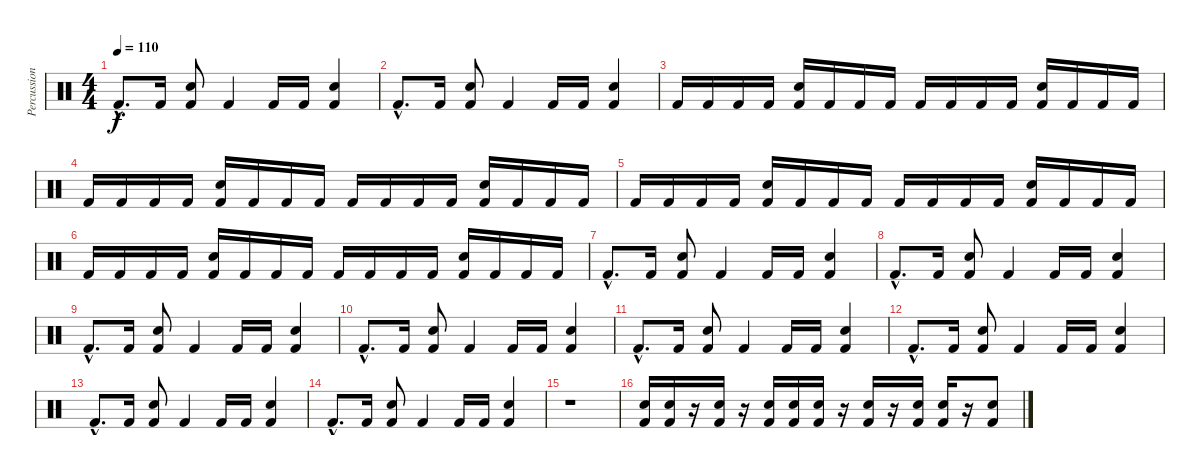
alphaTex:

\track ("Percussioni" "Percussion") {instrument percussion}
\staff {score}
\articulation defaults
\ts (4 4)
\tempo 110
\clef neutral
\ks c "Kick (hit) 2"{hac}.8{d dy f} "Kick (hit) 2".16
("Snare (hit) 2" "Kick (hit) 2").8 "Kick (hit) 2".4 "Kick (hit) 2".16 "Kick (hit) 2".16 ("Snare (hit) 2" "Kick (hit) 2").4 |
"Kick (hit) 2"{hac}.8{d} "Kick (hit) 2".16 ("Snare (hit) 2" "Kick (hit) 2").8 "Kick (hit) 2".4 "Kick (hit) 2".16 "Kick (hit) 2".16 ("Snare (hit) 2" "Kick (hit) 2").4 |
"Kick (hit) 2".16 "Kick (hit) 2".16 "Kick (hit) 2".16 "Kick (hit) 2".16 ("Snare (hit) 2" "Kick (hit) 2").16 "Kick (hit) 2".16 "Kick (hit) 2".16 "Kick (hit) 2".16 "Kick (hit) 2".16 "Kick (hit) 2".16 "Kick (hit) 2".16 "Kick (hit) 2".16 ("Snare (hit) 2" "Kick (hit) 2").16 "Kick (hit) 2".16 "Kick (hit) 2".16 "Kick (hit) 2".16 |
"Kick (hit) 2".16 "Kick (hit) 2".16 "Kick (hit) 2".16 "Kick (hit) 2".16 ("Snare (hit) 2" "Kick (hit) 2").16 "Kick (hit) 2".16 "Kick (hit) 2".16 "Kick (hit) 2".16 "Kick (hit) 2".16 "Kick (hit) 2".16 "Kick (hit) 2".16 "Kick (hit) 2".16 ("Snare (hit) 2" "Kick (hit) 2").16 "Kick (hit) 2".16 "Kick (hit) 2".16 "Kick (hit) 2".16 |
"Kick (hit) 2".16 "Kick (hit) 2".16 "Kick (hit) 2".16 "Kick (hit) 2".16 ("Snare (hit) 2" "Kick (hit) 2").16 "Kick (hit) 2".16 "Kick (hit) 2".16 "Kick (hit) 2".16 "Kick (hit) 2".16 "Kick (hit) 2".16 "Kick (hit) 2".16 "Kick (hit) 2".16 ("Snare (hit) 2" "Kick (hit) 2").16 "Kick (hit) 2".16 "Kick (hit) 2".16 "Kick (hit) 2".16 |
"Kick (hit) 2".16 "Kick (hit) 2".16 "Kick (hit) 2".16 "Kick (hit) 2".16 ("Snare (hit) 2" "Kick (hit) 2").16 "Kick (hit) 2".16 "Kick (hit) 2".16 "Kick (hit) 2".16 "Kick (hit) 2".16 "Kick (hit) 2".16 "Kick (hit) 2".16 "Kick (hit) 2".16 ("Snare (hit) 2" "Kick (hit) 2").16 "Kick (hit) 2".16 "Kick (hit) 2".16 "Kick (hit) 2".16 |
"Kick (hit) 2"{hac}.8{d} "Kick (hit) 2".16 ("Snare (hit) 2" "Kick (hit) 2").8 "Kick (hit) 2".4 "Kick (hit) 2".16 "Kick (hit) 2".16 ("Snare (hit) 2" "Kick (hit) 2").4 |
"Kick (hit) 2"{hac}.8{d} "Kick (hit) 2".16 ("Snare (hit) 2" "Kick (hit) 2").8 "Kick (hit) 2".4 "Kick (hit) 2".16 "Kick (hit) 2".16 ("Snare (hit) 2" "Kick (hit) 2").4 |
"Kick (hit) 2"{hac}.8{d} "Kick (hit) 2".16 ("Snare (hit) 2" "Kick (hit) 2").8 "Kick (hit) 2".4 "Kick (hit) 2".16 "Kick (hit) 2".16 ("Snare (hit) 2" "Kick (hit) 2").4 |
"Kick (hit) 2"{hac}.8{d} "Kick (hit) 2".16 ("Snare (hit) 2" "Kick (hit) 2").8 "Kick (hit) 2".4 "Kick (hit) 2".16 "Kick (hit) 2".16 ("Snare (hit) 2" "Kick (hit) 2").4 |
"Kick (hit) 2"{hac}.8{d} "Kick (hit) 2".16 ("Snare (hit) 2" "Kick (hit) 2").8 "Kick (hit) 2".4 "Kick (hit) 2".16 "Kick (hit) 2".16 ("Snare (hit) 2" "Kick (hit) 2").4 |
"Kick (hit) 2"{hac}.8{d} "Kick (hit) 2".16 ("Snare (hit) 2" "Kick (hit) 2").8 "Kick (hit) 2".4 "Kick (hit) 2".16 "Kick (hit) 2".16 ("Snare (hit) 2" "Kick (hit) 2").4 |
"Kick (hit) 2"{hac}.8{d} "Kick (hit) 2".16 ("Snare (hit) 2" "Kick (hit) 2").8 "Kick (hit) 2".4 "Kick (hit) 2".16 "Kick (hit) 2".16 ("Snare (hit) 2" "Kick (hit) 2").4 |
"Kick (hit) 2"{hac}.8{d} "Kick (hit) 2".16 ("Snare (hit) 2" "Kick (hit) 2").8 "Kick (hit) 2".4 "Kick (hit) 2".16 "Kick (hit) 2".16 ("Snare (hit) 2" "Kick (hit) 2").4 |
r.1 |
("Kick (hit) 2" "Snare (hit) 2").16 ("Kick (hit) 2" "Snare (hit) 2").16 r.16 ("Kick (hit) 2" "Snare (hit) 2").16 r.16 ("Kick (hit) 2" "Snare (hit) 2").16 ("Kick (hit) 2" "Snare (hit) 2").16 ("Kick (hit) 2" "Snare (hit) 2").16 r.16 ("Kick (hit) 2" "Snare (hit) 2").16 r.16 ("Kick (hit) 2" "Snare (hit) 2").16 ("Kick (hit) 2" "Snare (hit) 2").16 r.16 ("Kick (hit) 2" "Snare (hit) 2").8
